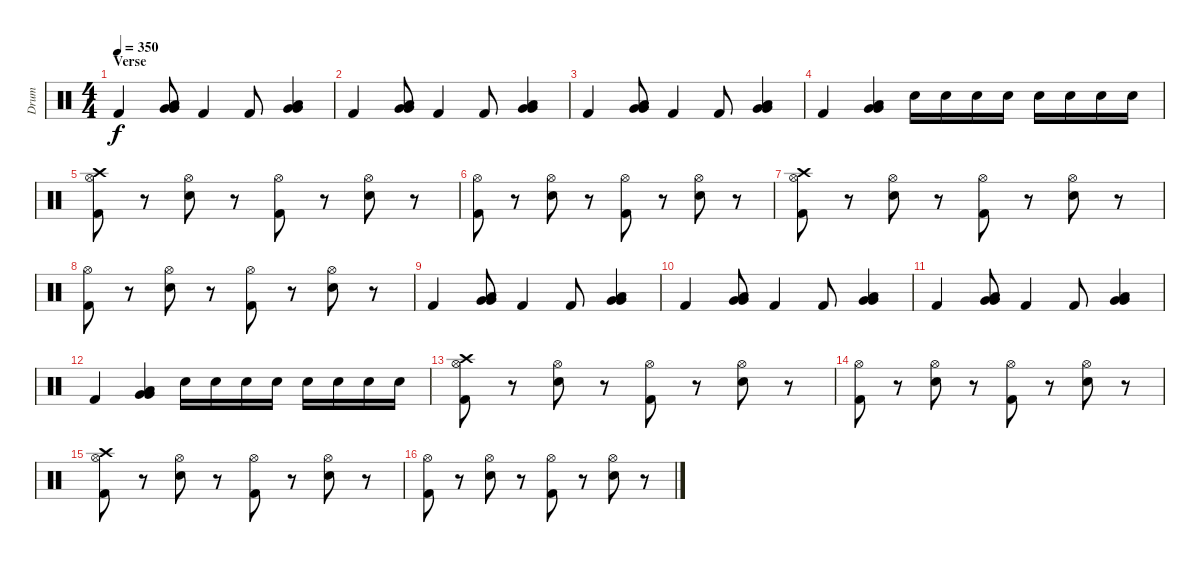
\track ("Drum" "Drum") {instrument percussion}
\staff {score}
\articulation defaults
\ts (4 4)
\section ("" "Verse")
\tempo 350
\clef neutral
\ks c "Kick (hit) 2".4{dy f}
("Very Low Tom (hit)" "Very Low Tom (hit)" "Low Floor Tom (hit)").8 "Kick (hit) 2".4 "Kick (hit) 2".8 ("Very Low Tom (hit)" "Very Low Tom (hit)" "Low Floor Tom (hit)").4 |
"Kick (hit) 2".4 ("Very Low Tom (hit)" "Very Low Tom (hit)" "Low Floor Tom (hit)").8 "Kick (hit) 2".4 "Kick (hit) 2".8 ("Very Low Tom (hit)" "Very Low Tom (hit)" "Low Floor Tom (hit)").4 |
"Kick (hit) 2".4 ("Very Low Tom (hit)" "Very Low Tom (hit)" "Low Floor Tom (hit)").8 "Kick (hit) 2".4 "Kick (hit) 2".8 ("Very Low Tom (hit)" "Very Low Tom (hit)" "Low Floor Tom (hit)").4 |
"Kick (hit) 2".4 ("Very Low Tom (hit)" "Very Low Tom (hit)" "Low Floor Tom (hit)").4 "Electric Snare (hit)".16 "Electric Snare (hit)".16 "Electric Snare (hit)".16 "Electric Snare (hit)".16 "Electric Snare (hit)".16 "Electric Snare (hit)".16 "Electric Snare (hit)".16 "Electric Snare (hit)".16 |
("Crash high (hit)" "Hi-Hat (open)" "Kick (hit) 2").8 r.8 ("Hi-Hat (open)" "Electric Snare (hit)").8 r.8 ("Hi-Hat (open)" "Kick (hit) 2").8 r.8 ("Hi-Hat (open)" "Electric Snare (hit)").8 r.8 |
("Hi-Hat (open)" "Kick (hit) 2").8 r.8 ("Hi-Hat (open)" "Electric Snare (hit)").8 r.8 ("Hi-Hat (open)" "Kick (hit) 2").8 r.8 ("Hi-Hat (open)" "Electric Snare (hit)").8 r.8 |
("Crash high (hit)" "Hi-Hat (open)" "Kick (hit) 2").8 r.8 ("Hi-Hat (open)" "Electric Snare (hit)").8 r.8 ("Hi-Hat (open)" "Kick (hit) 2").8 r.8 ("Hi-Hat (open)" "Electric Snare (hit)").8 r.8 |
("Hi-Hat (open)" "Kick (hit) 2").8 r.8 ("Hi-Hat (open)" "Electric Snare (hit)").8 r.8 ("Hi-Hat (open)" "Kick (hit) 2").8 r.8 ("Hi-Hat (open)" "Electric Snare (hit)").8 r.8 |
"Kick (hit) 2".4 ("Very Low Tom (hit)" "Very Low Tom (hit)" "Low Floor Tom (hit)").8 "Kick (hit) 2".4 "Kick (hit) 2".8 ("Very Low Tom (hit)" "Very Low Tom (hit)" "Low Floor Tom (hit)").4 |
"Kick (hit) 2".4 ("Very Low Tom (hit)" "Very Low Tom (hit)" "Low Floor Tom (hit)").8 "Kick (hit) 2".4 "Kick (hit) 2".8 ("Very Low Tom (hit)" "Very Low Tom (hit)" "Low Floor Tom (hit)").4 |
"Kick (hit) 2".4 ("Very Low Tom (hit)" "Very Low Tom (hit)" "Low Floor Tom (hit)").8 "Kick (hit) 2".4 "Kick (hit) 2".8 ("Very Low Tom (hit)" "Very Low Tom (hit)" "Low Floor Tom (hit)").4 |
"Kick (hit) 2".4 ("Very Low Tom (hit)" "Very Low Tom (hit)" "Low Floor Tom (hit)").4 "Electric Snare (hit)".16 "Electric Snare (hit)".16 "Electric Snare (hit)".16 "Electric Snare (hit)".16 "Electric Snare (hit)".16 "Electric Snare (hit)".16 "Electric Snare (hit)".16 "Electric Snare (hit)".16 |
("Crash high (hit)" "Hi-Hat (open)" "Kick (hit) 2").8 r.8 ("Hi-Hat (open)" "Electric Snare (hit)").8 r.8 ("Hi-Hat (open)" "Kick (hit) 2").8 r.8 ("Hi-Hat (open)" "Electric Snare (hit)").8 r.8 |
("Hi-Hat (open)" "Kick (hit) 2").8 r.8 ("Hi-Hat (open)" "Electric Snare (hit)").8 r.8 ("Hi-Hat (open)" "Kick (hit) 2").8 r.8 ("Hi-Hat (open)" "Electric Snare (hit)").8 r.8 |
("Crash high (hit)" "Hi-Hat (open)" "Kick (hit) 2").8 r.8 ("Hi-Hat (open)" "Electric Snare (hit)").8 r.8 ("Hi-Hat (open)" "Kick (hit) 2").8 r.8 ("Hi-Hat (open)" "Electric Snare (hit)").8 r.8 |
("Hi-Hat (open)" "Kick (hit) 2").8 r.8 ("Hi-Hat (open)" "Electric Snare (hit)").8 r.8 ("Hi-Hat (open)" "Kick (hit) 2").8 r.8 ("Hi-Hat (open)" "Electric Snare (hit)").8 r.8
